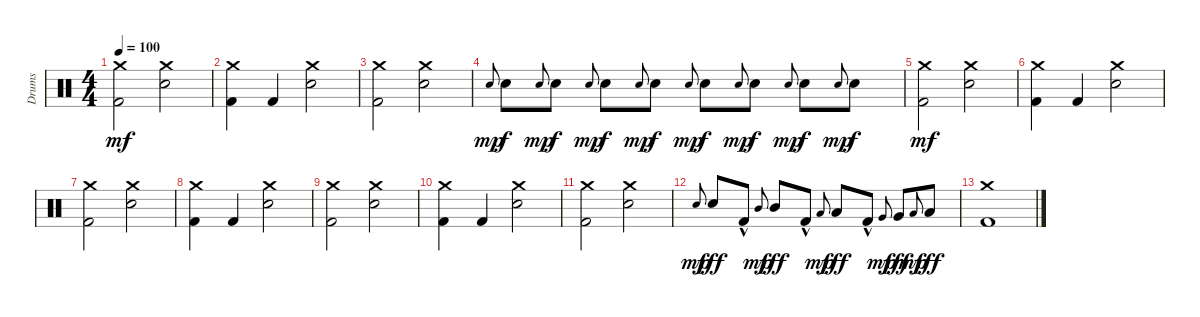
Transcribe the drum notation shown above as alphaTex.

\track ("Drums" "Drums") {instrument percussion}
\staff {score}
\articulation defaults
\ts (4 4)
\tempo 100
\clef neutral
\ks aminor
("Crash medium (hit)" "Kick (hit) 2").2{dy mf} ("Crash medium (hit)" "Snare (hit) 2").2 |
("Crash medium (hit)" "Kick (hit) 2").4 "Kick (hit) 2".4 ("Crash medium (hit)" "Snare (hit) 2").2 |
("Crash medium (hit)" "Kick (hit) 2").2 ("Crash medium (hit)" "Snare (hit) 2").2 |
"Snare (hit) 2".8{gr onbeat dy mp} "Snare (hit) 2".8{dy f} "Snare (hit) 2".8{gr onbeat dy mp} "Snare (hit) 2".8{dy f} "Snare (hit) 2".8{gr onbeat dy mp} "Snare (hit) 2".8{dy f} "Snare (hit) 2".8{gr onbeat dy mp} "Snare (hit) 2".8{dy f} "Snare (hit) 2".8{gr onbeat dy mp} "Snare (hit) 2".8{dy f} "Snare (hit) 2".8{gr onbeat dy mp} "Snare (hit) 2".8{dy f} "Snare (hit) 2".8{gr onbeat dy mp} "Snare (hit) 2".8{dy f} "Snare (hit) 2".8{gr onbeat dy mp} "Snare (hit) 2".8{dy f} |
("Crash medium (hit)" "Kick (hit) 2").2{dy mf} ("Crash medium (hit)" "Snare (hit) 2").2 |
("Crash medium (hit)" "Kick (hit) 2").4 "Kick (hit) 2".4 ("Crash medium (hit)" "Snare (hit) 2").2 |
("Crash medium (hit)" "Kick (hit) 2").2 ("Crash medium (hit)" "Snare (hit) 2").2 |
("Crash medium (hit)" "Kick (hit) 2").4 "Kick (hit) 2".4 ("Crash medium (hit)" "Snare (hit) 2").2 |
("Crash medium (hit)" "Kick (hit) 2").2 ("Crash medium (hit)" "Snare (hit) 2").2 |
("Crash medium (hit)" "Kick (hit) 2").4 "Kick (hit) 2".4 ("Crash medium (hit)" "Snare (hit) 2").2 |
("Crash medium (hit)" "Kick (hit) 2").2 ("Crash medium (hit)" "Snare (hit) 2").2 |
"Snare (hit) 2".8{gr onbeat dy mp} "Snare (hit) 2".8{dy fff} "Kick (hit) 2"{hac}.8 "Mid Tom (hit)".8{gr onbeat dy mp} "Mid Tom (hit)".8{dy fff} "Kick (hit) 2"{hac}.8 "Low Tom (hit)".8{gr onbeat dy mp} "Low Tom (hit)".8{dy fff} "Kick (hit) 2"{hac}.8 "Very Low Tom (hit)".8{gr onbeat dy mp} "Very Low Tom (hit)".8{dy fff} "Low Floor Tom (hit)".8{gr onbeat dy mp} "Low Floor Tom (hit)".8{dy fff} |
("Crash medium (hit)" "Kick (hit) 2").1
